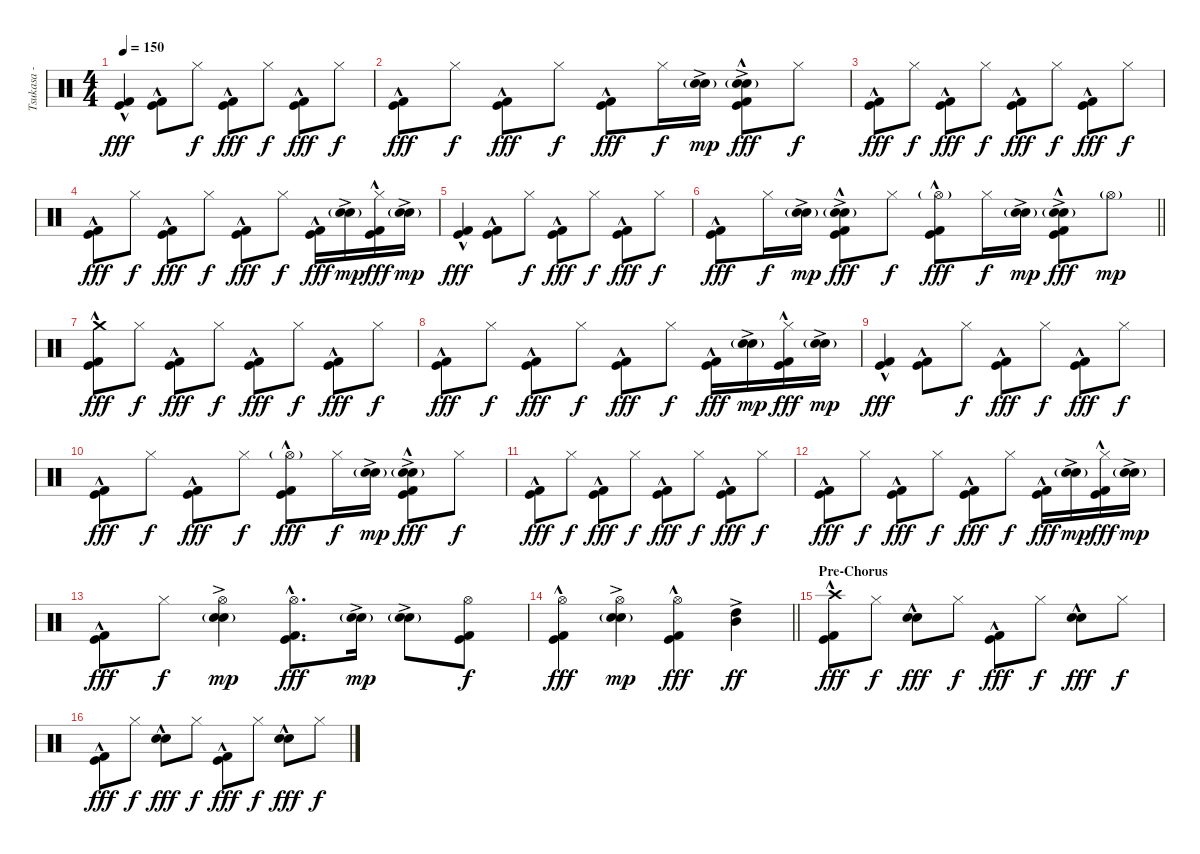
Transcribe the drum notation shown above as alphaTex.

\track ("Tsukasa - Drums" "Tsukasa - ") {instrument percussion}
\staff {score}
\articulation defaults
\ts (4 4)
\tempo 150
\clef neutral
\ks c
("Kick (hit)" "Kick (hit) 2"{hac}).4{dy fff} ("Kick (hit)" "Kick (hit) 2"{hac}).8 "Hi-Hat (closed)".8{dy f} ("Kick (hit)" "Kick (hit) 2"{hac}).8{dy fff} "Hi-Hat (closed)".8{dy f} ("Kick (hit)" "Kick (hit) 2"{hac}).8{dy fff} "Hi-Hat (closed)".8{dy f} |
("Kick (hit)" "Kick (hit) 2"{hac}).8{dy fff} "Hi-Hat (closed)".8{dy f} ("Kick (hit)" "Kick (hit) 2"{hac}).8{dy fff} "Hi-Hat (closed)".8{dy f} ("Kick (hit)" "Kick (hit) 2"{hac}).8{dy fff} "Hi-Hat (closed)".16{dy f} ("Electric Snare (hit)"{ac} "Snare (hit) 2"{g}).16{dy mp} ("Electric Snare (hit)"{ac} "Snare (hit) 2"{g} "Kick (hit)" "Kick (hit) 2"{hac}).8{dy fff} "Hi-Hat (closed)".8{dy f} |
("Kick (hit)" "Kick (hit) 2"{hac}).8{dy fff} "Hi-Hat (closed)".8{dy f} ("Kick (hit)" "Kick (hit) 2"{hac}).8{dy fff} "Hi-Hat (closed)".8{dy f} ("Kick (hit)" "Kick (hit) 2"{hac}).8{dy fff} "Hi-Hat (closed)".8{dy f} ("Kick (hit)" "Kick (hit) 2"{hac}).8{dy fff} "Hi-Hat (closed)".8{dy f} |
("Kick (hit)" "Kick (hit) 2"{hac}).8{dy fff} "Hi-Hat (closed)".8{dy f} ("Kick (hit)" "Kick (hit) 2"{hac}).8{dy fff} "Hi-Hat (closed)".8{dy f} ("Kick (hit)" "Kick (hit) 2"{hac}).8{dy fff} "Hi-Hat (closed)".8{dy f} ("Kick (hit)" "Kick (hit) 2"{hac}).16{dy fff} ("Electric Snare (hit)"{ac} "Snare (hit) 2"{g}).16{dy mp} ("Hi-Hat (closed)" "Kick (hit)" "Kick (hit) 2"{hac}).16{dy fff} ("Electric Snare (hit)"{ac} "Snare (hit) 2"{g}).16{dy mp} |
("Kick (hit)" "Kick (hit) 2"{hac}).4{dy fff} ("Kick (hit)" "Kick (hit) 2"{hac}).8 "Hi-Hat (closed)".8{dy f} ("Kick (hit)" "Kick (hit) 2"{hac}).8{dy fff} "Hi-Hat (closed)".8{dy f} ("Kick (hit)" "Kick (hit) 2"{hac}).8{dy fff} "Hi-Hat (closed)".8{dy f} |
\barLineRight lightlight
("Kick (hit)" "Kick (hit) 2"{hac}).8{dy fff} "Hi-Hat (closed)".16{dy f} ("Electric Snare (hit)"{ac} "Snare (hit) 2"{g}).16{dy mp} ("Electric Snare (hit)"{ac} "Snare (hit) 2"{g} "Kick (hit)" "Kick (hit) 2"{hac}).8{dy fff} "Hi-Hat (closed)".8{dy f} ("Hi-Hat (open)"{g} "Kick (hit)" "Kick (hit) 2"{hac}).8{dy fff} "Hi-Hat (closed)".16{dy f} ("Electric Snare (hit)"{ac} "Snare (hit) 2"{g}).16{dy mp} ("Electric Snare (hit)"{ac} "Snare (hit) 2"{g} "Kick (hit)" "Kick (hit) 2"{hac}).8{dy fff} "Hi-Hat (open)"{g}.8{dy mp} |
\section ("" "")
("Crash medium (hit)" "Kick (hit)" "Kick (hit) 2"{hac}).8{dy fff} "Hi-Hat (closed)".8{dy f} ("Kick (hit)" "Kick (hit) 2"{hac}).8{dy fff} "Hi-Hat (closed)".8{dy f} ("Kick (hit)" "Kick (hit) 2"{hac}).8{dy fff} "Hi-Hat (closed)".8{dy f} ("Kick (hit)" "Kick (hit) 2"{hac}).8{dy fff} "Hi-Hat (closed)".8{dy f} |
("Kick (hit)" "Kick (hit) 2"{hac}).8{dy fff} "Hi-Hat (closed)".8{dy f} ("Kick (hit)" "Kick (hit) 2"{hac}).8{dy fff} "Hi-Hat (closed)".8{dy f} ("Kick (hit)" "Kick (hit) 2"{hac}).8{dy fff} "Hi-Hat (closed)".8{dy f} ("Kick (hit)" "Kick (hit) 2"{hac}).16{dy fff} ("Electric Snare (hit)"{ac} "Snare (hit) 2"{g}).16{dy mp} ("Hi-Hat (closed)" "Kick (hit)" "Kick (hit) 2"{hac}).16{dy fff} ("Electric Snare (hit)"{ac} "Snare (hit) 2"{g}).16{dy mp} |
("Kick (hit)" "Kick (hit) 2"{hac}).4{dy fff} ("Kick (hit)" "Kick (hit) 2"{hac}).8 "Hi-Hat (closed)".8{dy f} ("Kick (hit)" "Kick (hit) 2"{hac}).8{dy fff} "Hi-Hat (closed)".8{dy f} ("Kick (hit)" "Kick (hit) 2"{hac}).8{dy fff} "Hi-Hat (closed)".8{dy f} |
("Kick (hit)" "Kick (hit) 2"{hac}).8{dy fff} "Hi-Hat (closed)".8{dy f} ("Kick (hit)" "Kick (hit) 2"{hac}).8{dy fff} "Hi-Hat (closed)".8{dy f} ("Hi-Hat (open)"{g} "Kick (hit)" "Kick (hit) 2"{hac}).8{dy fff} "Hi-Hat (closed)".16{dy f} ("Electric Snare (hit)"{ac} "Snare (hit) 2"{g}).16{dy mp} ("Electric Snare (hit)"{ac} "Snare (hit) 2"{g} "Kick (hit)" "Kick (hit) 2"{hac}).8{dy fff} "Hi-Hat (closed)".8{dy f} |
("Kick (hit)" "Kick (hit) 2"{hac}).8{dy fff} "Hi-Hat (closed)".8{dy f} ("Kick (hit)" "Kick (hit) 2"{hac}).8{dy fff} "Hi-Hat (closed)".8{dy f} ("Kick (hit)" "Kick (hit) 2"{hac}).8{dy fff} "Hi-Hat (closed)".8{dy f} ("Kick (hit)" "Kick (hit) 2"{hac}).8{dy fff} "Hi-Hat (closed)".8{dy f} |
("Kick (hit)" "Kick (hit) 2"{hac}).8{dy fff} "Hi-Hat (closed)".8{dy f} ("Kick (hit)" "Kick (hit) 2"{hac}).8{dy fff} "Hi-Hat (closed)".8{dy f} ("Kick (hit)" "Kick (hit) 2"{hac}).8{dy fff} "Hi-Hat (closed)".8{dy f} ("Kick (hit)" "Kick (hit) 2"{hac}).16{dy fff} ("Electric Snare (hit)"{ac} "Snare (hit) 2"{g}).16{dy mp} ("Hi-Hat (closed)" "Kick (hit)" "Kick (hit) 2"{hac}).16{dy fff} ("Electric Snare (hit)"{ac} "Snare (hit) 2"{g}).16{dy mp} |
("Kick (hit)" "Kick (hit) 2"{hac}).8{dy fff} "Hi-Hat (closed)".8{dy f} ("Hi-Hat (open)"{ac} "Electric Snare (hit)"{ac} "Snare (hit) 2"{g}).4{dy mp} ("Hi-Hat (open)" "Kick (hit)" "Kick (hit) 2"{hac}).8{d dy fff} ("Electric Snare (hit)"{ac} "Snare (hit) 2"{g}).16{dy mp} ("Electric Snare (hit)"{ac} "Snare (hit) 2"{g}).8 ("Hi-Hat (open)" "Kick (hit)" "Kick (hit) 2").8{dy f} |
\barLineRight lightlight
("Hi-Hat (open)" "Kick (hit)" "Kick (hit) 2"{hac}).4{dy fff} ("Hi-Hat (open)" "Electric Snare (hit)"{ac} "Snare (hit) 2"{g}).4{dy mp} ("Hi-Hat (open)" "Kick (hit)" "Kick (hit) 2"{hac}).4{dy fff} ("High Tom (hit)"{ac} "Mid Tom (hit)"{ac}).4{dy ff} |
\section ("" "Pre-Chorus")
("Crash high (hit)" "Kick (hit)" "Kick (hit) 2"{hac}).8{dy fff} "Hi-Hat (closed)".8{dy f} ("Electric Snare (hit)"{hac} "Snare (hit) 2").8{dy fff} "Hi-Hat (closed)".8{dy f} ("Kick (hit)" "Kick (hit) 2"{hac}).8{dy fff} "Hi-Hat (closed)".8{dy f} ("Electric Snare (hit)"{hac} "Snare (hit) 2").8{dy fff} "Hi-Hat (closed)".8{dy f} |
("Kick (hit)" "Kick (hit) 2"{hac}).8{dy fff} "Hi-Hat (closed)".8{dy f} ("Electric Snare (hit)"{hac} "Snare (hit) 2").8{dy fff} "Hi-Hat (closed)".8{dy f} ("Kick (hit)" "Kick (hit) 2"{hac}).8{dy fff} "Hi-Hat (closed)".8{dy f} ("Electric Snare (hit)"{hac} "Snare (hit) 2").8{dy fff} "Hi-Hat (closed)".8{dy f}
